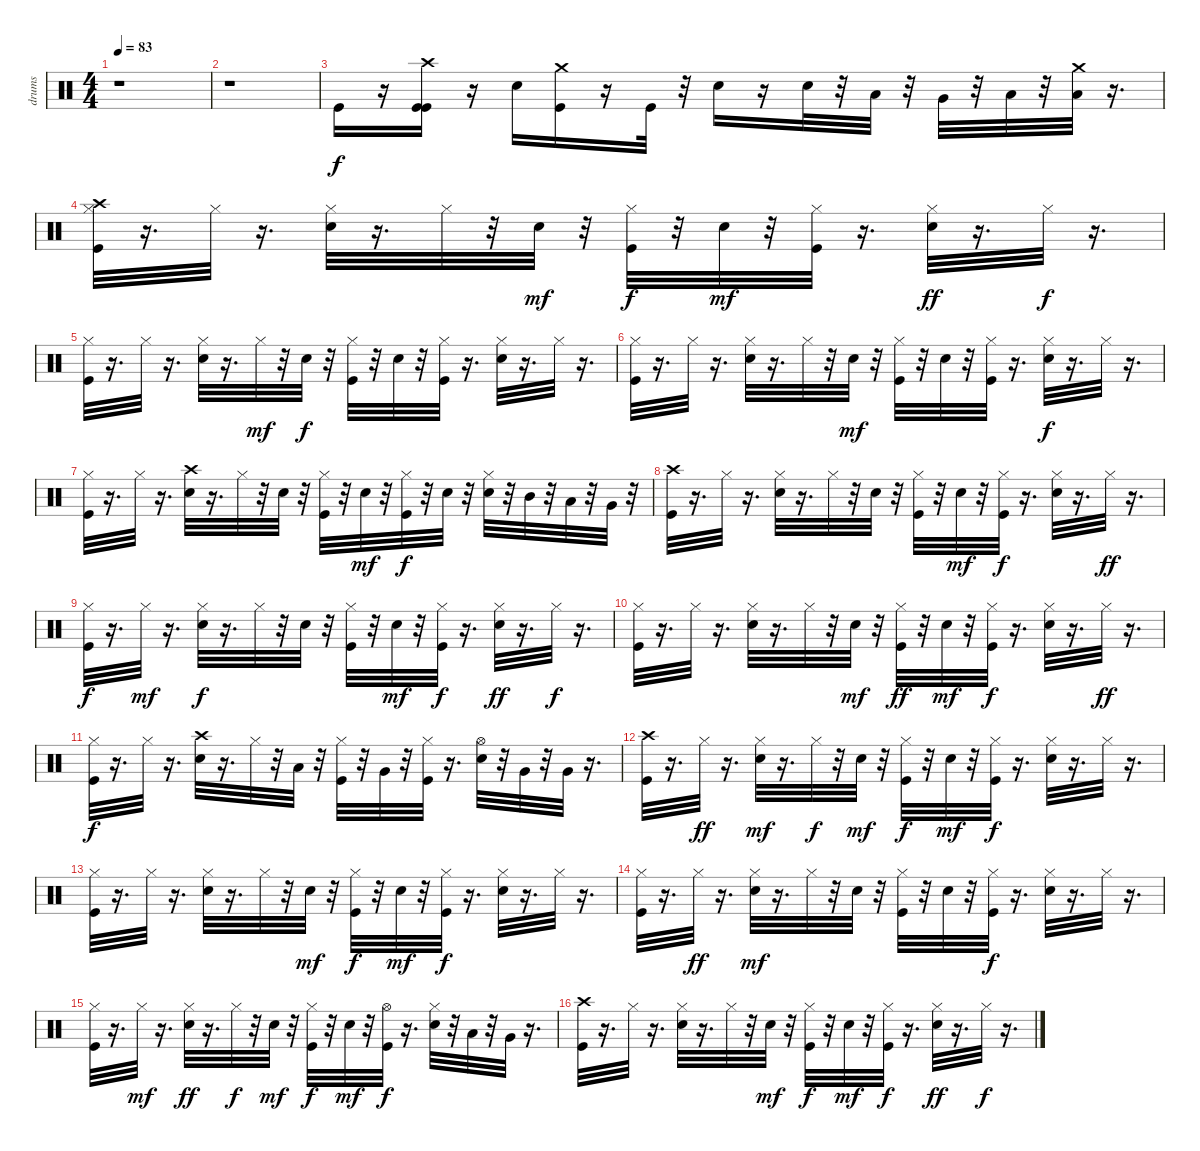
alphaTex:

\track ("drums" "drums") {instrument percussion}
\staff {score}
\articulation defaults
\ts (4 4)
\tempo 83
\clef neutral
\ks c
r.1{dy f} |
r.1 |
"Kick (hit)".16 r.16 ("Crash high (hit)" "Kick (hit)" "Kick (hit)").16 r.16 "Electric Snare (hit)".16 ("Kick (hit)" "Crash medium (hit)").16 r.16 "Kick (hit)".32 r.32 "Electric Snare (hit)".16 r.16 "Electric Snare (hit)".32 r.32 "Low Tom (hit)".32 r.32 "Very Low Tom (hit)".32 r.32 "Low Floor Tom (hit)".32 r.32 ("Crash medium (hit)" "Low Floor Tom (hit)").32 r.16{d} |
("Kick (hit)" "Hi-Hat (closed)" "Crash high (hit)").32 r.16{d} "Hi-Hat (closed)".32 r.16{d} ("Hi-Hat (closed)" "Electric Snare (hit)").32 r.16{d} "Hi-Hat (closed)".32 r.32 "Electric Snare (hit)".32{dy mf} r.32 ("Hi-Hat (closed)" "Kick (hit)").32{dy f} r.32 "Electric Snare (hit)".32{dy mf} r.32 ("Hi-Hat (closed)" "Kick (hit)").32 r.16{d} ("Electric Snare (hit)" "Hi-Hat (closed)").32{dy ff} r.16{d} "Hi-Hat (closed)".32{dy f} r.16{d} |
("Hi-Hat (closed)" "Kick (hit)").32 r.16{d} "Hi-Hat (closed)".32 r.16{d} ("Electric Snare (hit)" "Hi-Hat (closed)").32 r.16{d} "Hi-Hat (closed)".32{dy mf} r.32 "Electric Snare (hit)".32{dy f} r.32 ("Hi-Hat (closed)" "Kick (hit)").32 r.32 "Electric Snare (hit)".32 r.32 ("Hi-Hat (closed)" "Kick (hit)").32 r.16{d} ("Electric Snare (hit)" "Hi-Hat (closed)").32 r.16{d} "Hi-Hat (closed)".32 r.16{d} |
("Hi-Hat (closed)" "Kick (hit)").32 r.16{d} "Hi-Hat (closed)".32 r.16{d} ("Electric Snare (hit)" "Hi-Hat (closed)").32 r.16{d} "Hi-Hat (closed)".32 r.32 "Electric Snare (hit)".32{dy mf} r.32 ("Kick (hit)" "Hi-Hat (closed)").32 r.32 "Electric Snare (hit)".32 r.32 ("Kick (hit)" "Hi-Hat (closed)").32 r.16{d} ("Electric Snare (hit)" "Hi-Hat (closed)").32{dy f} r.16{d} "Hi-Hat (closed)".32 r.16{d} |
("Kick (hit)" "Hi-Hat (closed)").32 r.16{d} "Hi-Hat (closed)".32 r.16{d} ("Crash high (hit)" "Electric Snare (hit)").32 r.16{d} "Hi-Hat (closed)".32 r.32 "Electric Snare (hit)".32 r.32 ("Kick (hit)" "Hi-Hat (closed)").32 r.32 "Electric Snare (hit)".32{dy mf} r.32 ("Hi-Hat (closed)" "Kick (hit)").32{dy f} r.32 "Electric Snare (hit)".32 r.32 ("Hi-Hat (closed)" "Electric Snare (hit)").32 r.32 "Mid Tom (hit)".32 r.32 "Low Tom (hit)".32 r.32 "Very Low Tom (hit)".32 r.32 |
("Crash high (hit)" "Kick (hit)").32 r.16{d} "Hi-Hat (closed)".32 r.16{d} ("Hi-Hat (closed)" "Electric Snare (hit)").32 r.16{d} "Hi-Hat (closed)".32 r.32 "Electric Snare (hit)".32 r.32 ("Kick (hit)" "Hi-Hat (closed)").32 r.32 "Electric Snare (hit)".32{dy mf} r.32 ("Kick (hit)" "Hi-Hat (closed)").32{dy f} r.16{d} ("Electric Snare (hit)" "Hi-Hat (closed)").32 r.16{d} "Hi-Hat (closed)".32{dy ff} r.16{d} |
("Hi-Hat (closed)" "Kick (hit)").32{dy f} r.16{d} "Hi-Hat (closed)".32{dy mf} r.16{d} ("Electric Snare (hit)" "Hi-Hat (closed)").32{dy f} r.16{d} "Hi-Hat (closed)".32 r.32 "Electric Snare (hit)".32 r.32 ("Kick (hit)" "Hi-Hat (closed)").32 r.32 "Electric Snare (hit)".32{dy mf} r.32 ("Kick (hit)" "Hi-Hat (closed)").32{dy f} r.16{d} ("Electric Snare (hit)" "Hi-Hat (closed)").32{dy ff} r.16{d} "Hi-Hat (closed)".32{dy f} r.16{d} |
("Hi-Hat (closed)" "Kick (hit)").32 r.16{d} "Hi-Hat (closed)".32 r.16{d} ("Electric Snare (hit)" "Hi-Hat (closed)").32 r.16{d} "Hi-Hat (closed)".32 r.32 "Electric Snare (hit)".32{dy mf} r.32 ("Kick (hit)" "Hi-Hat (closed)").32{dy ff} r.32 "Electric Snare (hit)".32{dy mf} r.32 ("Hi-Hat (closed)" "Kick (hit)").32{dy f} r.16{d} ("Electric Snare (hit)" "Hi-Hat (closed)").32 r.16{d} "Hi-Hat (closed)".32{dy ff} r.16{d} |
("Kick (hit)" "Hi-Hat (closed)").32{dy f} r.16{d} "Hi-Hat (closed)".32 r.16{d} ("Electric Snare (hit)" "Crash high (hit)").32 r.16{d} "Hi-Hat (closed)".32 r.32 "Low Tom (hit)".32 r.32 ("Kick (hit)" "Hi-Hat (closed)").32 r.32 "Very Low Tom (hit)".32 r.32 ("Hi-Hat (closed)" "Kick (hit)").32 r.16{d} ("Hi-Hat (open)" "Electric Snare (hit)").32 r.32 "Very Low Tom (hit)".32 r.32 "Very Low Tom (hit)".32 r.16{d} |
("Crash high (hit)" "Kick (hit)").32 r.16{d} "Hi-Hat (closed)".32{dy ff} r.16{d} ("Hi-Hat (closed)" "Electric Snare (hit)").32{dy mf} r.16{d} "Hi-Hat (closed)".32{dy f} r.32 "Electric Snare (hit)".32{dy mf} r.32 ("Hi-Hat (closed)" "Kick (hit)").32{dy f} r.32 "Electric Snare (hit)".32{dy mf} r.32 ("Kick (hit)" "Hi-Hat (closed)").32{dy f} r.16{d} ("Hi-Hat (closed)" "Electric Snare (hit)").32 r.16{d} "Hi-Hat (closed)".32 r.16{d} |
("Hi-Hat (closed)" "Kick (hit)").32 r.16{d} "Hi-Hat (closed)".32 r.16{d} ("Electric Snare (hit)" "Hi-Hat (closed)").32 r.16{d} "Hi-Hat (closed)".32 r.32 "Electric Snare (hit)".32{dy mf} r.32 ("Hi-Hat (closed)" "Kick (hit)").32{dy f} r.32 "Electric Snare (hit)".32{dy mf} r.32 ("Kick (hit)" "Hi-Hat (closed)").32{dy f} r.16{d} ("Electric Snare (hit)" "Hi-Hat (closed)").32 r.16{d} "Hi-Hat (closed)".32 r.16{d} |
("Kick (hit)" "Hi-Hat (closed)").32 r.16{d} "Hi-Hat (closed)".32{dy ff} r.16{d} ("Electric Snare (hit)" "Hi-Hat (closed)").32{dy mf} r.16{d} "Hi-Hat (closed)".32 r.32 "Electric Snare (hit)".32 r.32 ("Kick (hit)" "Hi-Hat (closed)").32 r.32 "Electric Snare (hit)".32 r.32 ("Hi-Hat (closed)" "Kick (hit)").32{dy f} r.16{d} ("Hi-Hat (closed)" "Electric Snare (hit)").32 r.16{d} "Hi-Hat (closed)".32 r.16{d} |
("Hi-Hat (closed)" "Kick (hit)").32 r.16{d} "Hi-Hat (closed)".32{dy mf} r.16{d} ("Hi-Hat (closed)" "Electric Snare (hit)").32{dy ff} r.16{d} "Hi-Hat (closed)".32{dy f} r.32 "Electric Snare (hit)".32{dy mf} r.32 ("Hi-Hat (closed)" "Kick (hit)").32{dy f} r.32 "Electric Snare (hit)".32{dy mf} r.32 ("Hi-Hat (open)" "Kick (hit)").32{dy f} r.16{d} ("Hi-Hat (closed)" "Electric Snare (hit)").32 r.32 "Low Tom (hit)".32 r.32 "Very Low Tom (hit)".32 r.16{d} |
("Crash high (hit)" "Kick (hit)").32 r.16{d} "Hi-Hat (closed)".32 r.16{d} ("Hi-Hat (closed)" "Electric Snare (hit)").32 r.16{d} "Hi-Hat (closed)".32 r.32 "Electric Snare (hit)".32{dy mf} r.32 ("Kick (hit)" "Hi-Hat (closed)").32{dy f} r.32 "Electric Snare (hit)".32{dy mf} r.32 ("Hi-Hat (closed)" "Kick (hit)").32{dy f} r.16{d} ("Electric Snare (hit)" "Hi-Hat (closed)").32{dy ff} r.16{d} "Hi-Hat (closed)".32{dy f} r.16{d}
